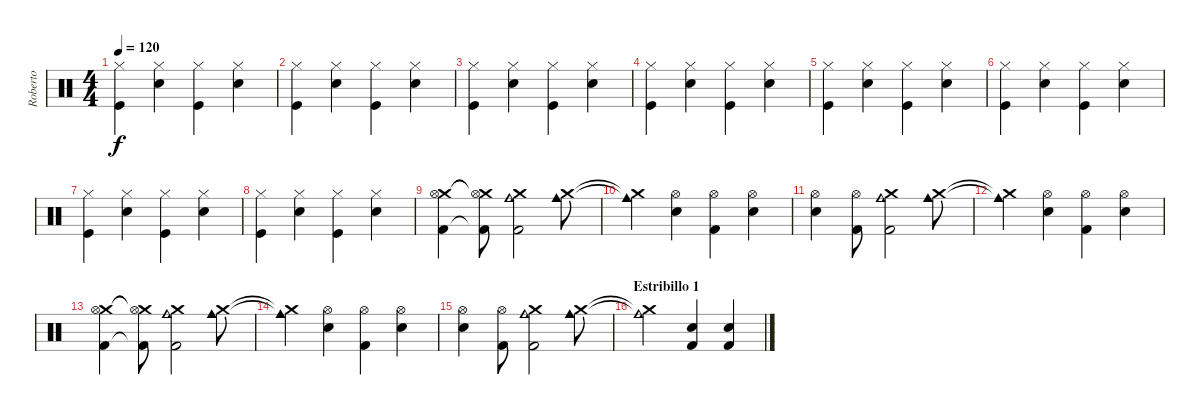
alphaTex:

\track ("Roberto" "Roberto") {instrument percussion}
\staff {score}
\articulation defaults
\ts (4 4)
\tempo 120
\clef neutral
\ks c
("Hi-Hat (closed)" "Kick (hit)").4{dy f} ("Hi-Hat (closed)" "Snare (hit) 2").4 ("Hi-Hat (closed)" "Kick (hit)").4 ("Hi-Hat (closed)" "Snare (hit) 2").4 |
("Hi-Hat (closed)" "Kick (hit)").4 ("Hi-Hat (closed)" "Snare (hit) 2").4 ("Hi-Hat (closed)" "Kick (hit)").4 ("Hi-Hat (closed)" "Snare (hit) 2").4 |
("Hi-Hat (closed)" "Kick (hit)").4 ("Hi-Hat (closed)" "Snare (hit) 2").4 ("Hi-Hat (closed)" "Kick (hit)").4 ("Hi-Hat (closed)" "Snare (hit) 2").4 |
("Hi-Hat (closed)" "Kick (hit)").4 ("Hi-Hat (closed)" "Snare (hit) 2").4 ("Hi-Hat (closed)" "Kick (hit)").4 ("Hi-Hat (closed)" "Snare (hit) 2").4 |
("Hi-Hat (closed)" "Kick (hit)").4 ("Hi-Hat (closed)" "Snare (hit) 2").4 ("Hi-Hat (closed)" "Kick (hit)").4 ("Hi-Hat (closed)" "Snare (hit) 2").4 |
("Hi-Hat (closed)" "Kick (hit)").4 ("Hi-Hat (closed)" "Snare (hit) 2").4 ("Hi-Hat (closed)" "Kick (hit)").4 ("Hi-Hat (closed)" "Snare (hit) 2").4 |
("Hi-Hat (closed)" "Kick (hit)").4 ("Hi-Hat (closed)" "Snare (hit) 2").4 ("Hi-Hat (closed)" "Kick (hit)").4 ("Hi-Hat (closed)" "Snare (hit) 2").4 |
("Hi-Hat (closed)" "Kick (hit)").4 ("Hi-Hat (closed)" "Snare (hit) 2").4 ("Hi-Hat (closed)" "Kick (hit)").4 ("Hi-Hat (closed)" "Snare (hit) 2").4 |
("Crash medium (hit)" "Hi-Hat (open)" "Kick (hit) 2").4 ("Crash medium (hit)"{t} "Hi-Hat (open)"{t} "Kick (hit) 2"{t}).8 ("Crash medium (hit)" "Cowbell medium (hit)" "Kick (hit) 2").2 ("Crash medium (hit)" "Cowbell medium (hit)").8 |
("Crash medium (hit)"{t} "Cowbell medium (hit)"{t}).4 ("Hi-Hat (open)" "Snare (hit) 2").4 ("Hi-Hat (open)" "Kick (hit) 2").4 ("Hi-Hat (open)" "Snare (hit) 2").4 |
("Hi-Hat (open)" "Snare (hit) 2").4 ("Hi-Hat (open)" "Kick (hit) 2").8 ("Crash medium (hit)" "Cowbell medium (hit)" "Kick (hit) 2").2 ("Crash medium (hit)" "Cowbell medium (hit)").8 |
("Crash medium (hit)"{t} "Cowbell medium (hit)"{t}).4 ("Hi-Hat (open)" "Snare (hit) 2").4 ("Hi-Hat (open)" "Kick (hit) 2").4 ("Hi-Hat (open)" "Snare (hit) 2").4 |
("Crash medium (hit)" "Hi-Hat (open)" "Kick (hit) 2").4 ("Crash medium (hit)"{t} "Hi-Hat (open)"{t} "Kick (hit) 2"{t}).8 ("Crash medium (hit)" "Cowbell medium (hit)" "Kick (hit) 2").2 ("Crash medium (hit)" "Cowbell medium (hit)").8 |
("Crash medium (hit)"{t} "Cowbell medium (hit)"{t}).4 ("Hi-Hat (open)" "Snare (hit) 2").4 ("Hi-Hat (open)" "Kick (hit) 2").4 ("Hi-Hat (open)" "Snare (hit) 2").4 |
("Hi-Hat (open)" "Snare (hit) 2").4 ("Hi-Hat (open)" "Kick (hit) 2").8 ("Crash medium (hit)" "Cowbell medium (hit)" "Kick (hit) 2").2 ("Crash medium (hit)" "Cowbell medium (hit)").8 |
\section ("" "Estribillo 1")
("Crash medium (hit)"{t} "Cowbell medium (hit)"{t}).2 ("Snare (hit) 2" "Kick (hit) 2").4 ("Snare (hit) 2" "Kick (hit) 2").4
